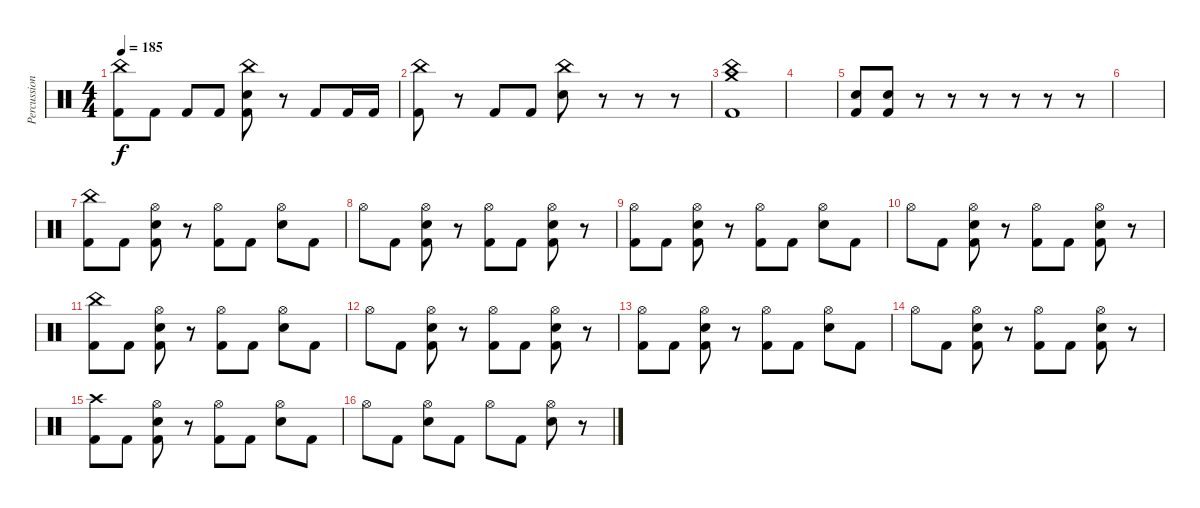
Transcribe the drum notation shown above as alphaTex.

\track ("Percussion" "Percussion") {instrument percussion}
\staff {score}
\articulation defaults
\ts (4 4)
\tempo 185
\clef neutral
\ks c
("China (hit)" "Kick (hit) 2").8{dy f} "Kick (hit) 2".8 "Kick (hit) 2".8 "Kick (hit) 2".8 ("Snare (hit) 2" "China (hit)" "Kick (hit) 2").8 r.8 "Kick (hit) 2".8 "Kick (hit) 2".16 "Kick (hit) 2".16 |
("China (hit)" "Kick (hit) 2").8 r.8 "Kick (hit) 2".8 "Kick (hit) 2".8 ("Snare (hit) 2" "China (hit)").8 r.8 r.8 r.8 |
("Crash medium (hit)" "China (hit)" "Kick (hit) 2").1 |
|
("Kick (hit) 2" "Snare (hit) 2").8 ("Kick (hit) 2" "Snare (hit) 2").8 r.8 r.8 r.8 r.8 r.8 r.8 |
|
("China (hit)" "Kick (hit) 2").8 "Kick (hit) 2".8 ("Snare (hit) 2" "Hi-Hat (open)" "Kick (hit) 2").8 r.8 ("Hi-Hat (open)" "Kick (hit) 2").8 "Kick (hit) 2".8 ("Snare (hit) 2" "Hi-Hat (open)").8 "Kick (hit) 2".8 |
"Hi-Hat (open)".8 "Kick (hit) 2".8 ("Snare (hit) 2" "Hi-Hat (open)" "Kick (hit) 2").8 r.8 ("Hi-Hat (open)" "Kick (hit) 2").8 "Kick (hit) 2".8 ("Snare (hit) 2" "Hi-Hat (open)" "Kick (hit) 2").8 r.8 |
("Hi-Hat (open)" "Kick (hit) 2").8 "Kick (hit) 2".8 ("Snare (hit) 2" "Hi-Hat (open)" "Kick (hit) 2").8 r.8 ("Hi-Hat (open)" "Kick (hit) 2").8 "Kick (hit) 2".8 ("Snare (hit) 2" "Hi-Hat (open)").8 "Kick (hit) 2".8 |
"Hi-Hat (open)".8 "Kick (hit) 2".8 ("Snare (hit) 2" "Hi-Hat (open)" "Kick (hit) 2").8 r.8 ("Hi-Hat (open)" "Kick (hit) 2").8 "Kick (hit) 2".8 ("Snare (hit) 2" "Hi-Hat (open)" "Kick (hit) 2").8 r.8 |
("China (hit)" "Kick (hit) 2").8 "Kick (hit) 2".8 ("Snare (hit) 2" "Hi-Hat (open)" "Kick (hit) 2").8 r.8 ("Hi-Hat (open)" "Kick (hit) 2").8 "Kick (hit) 2".8 ("Snare (hit) 2" "Hi-Hat (open)").8 "Kick (hit) 2".8 |
"Hi-Hat (open)".8 "Kick (hit) 2".8 ("Snare (hit) 2" "Hi-Hat (open)" "Kick (hit) 2").8 r.8 ("Hi-Hat (open)" "Kick (hit) 2").8 "Kick (hit) 2".8 ("Snare (hit) 2" "Hi-Hat (open)" "Kick (hit) 2").8 r.8 |
("Hi-Hat (open)" "Kick (hit) 2").8 "Kick (hit) 2".8 ("Snare (hit) 2" "Hi-Hat (open)" "Kick (hit) 2").8 r.8 ("Hi-Hat (open)" "Kick (hit) 2").8 "Kick (hit) 2".8 ("Snare (hit) 2" "Hi-Hat (open)").8 "Kick (hit) 2".8 |
"Hi-Hat (open)".8 "Kick (hit) 2".8 ("Snare (hit) 2" "Hi-Hat (open)" "Kick (hit) 2").8 r.8 ("Hi-Hat (open)" "Kick (hit) 2").8 "Kick (hit) 2".8 ("Snare (hit) 2" "Hi-Hat (open)" "Kick (hit) 2").8 r.8 |
("Crash high (hit)" "Kick (hit) 2").8 "Kick (hit) 2".8 ("Snare (hit) 2" "Hi-Hat (open)" "Kick (hit) 2").8 r.8 ("Hi-Hat (open)" "Kick (hit) 2").8 "Kick (hit) 2".8 ("Snare (hit) 2" "Hi-Hat (open)").8 "Kick (hit) 2".8 |
"Hi-Hat (open)".8 "Kick (hit) 2".8 ("Snare (hit) 2" "Hi-Hat (open)").8 "Kick (hit) 2".8 "Hi-Hat (open)".8 "Kick (hit) 2".8 ("Snare (hit) 2" "Hi-Hat (open)").8 r.8
